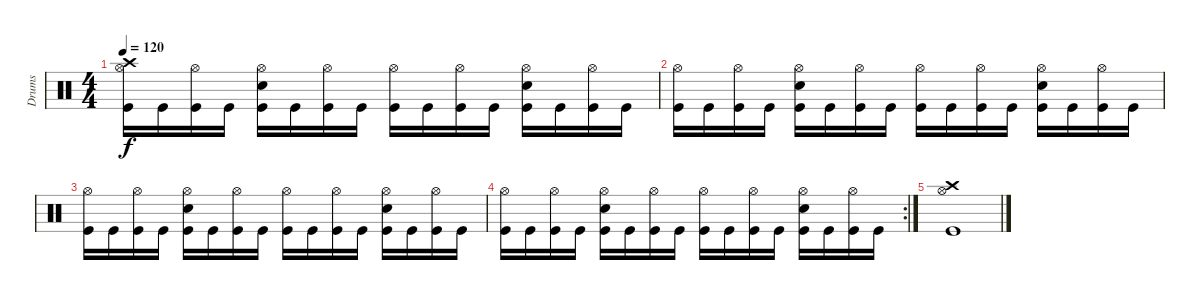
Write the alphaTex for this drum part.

\track ("Drums" "Drums") {instrument percussion}
\staff {score}
\articulation defaults
\ts (4 4)
\tempo 120
\clef neutral
\ks c
("Hi-Hat (open)" "Crash high (hit)" "Kick (hit)").16{dy f} "Kick (hit)".16 ("Hi-Hat (open)" "Kick (hit)").16 "Kick (hit)".16 ("Hi-Hat (open)" "Electric Snare (hit)" "Kick (hit)").16 "Kick (hit)".16 ("Hi-Hat (open)" "Kick (hit)").16 "Kick (hit)".16 ("Hi-Hat (open)" "Kick (hit)").16 "Kick (hit)".16 ("Hi-Hat (open)" "Kick (hit)").16 "Kick (hit)".16 ("Hi-Hat (open)" "Electric Snare (hit)" "Kick (hit)").16 "Kick (hit)".16 ("Hi-Hat (open)" "Kick (hit)").16 "Kick (hit)".16 |
("Hi-Hat (open)" "Kick (hit)").16 "Kick (hit)".16 ("Hi-Hat (open)" "Kick (hit)").16 "Kick (hit)".16 ("Hi-Hat (open)" "Electric Snare (hit)" "Kick (hit)").16 "Kick (hit)".16 ("Hi-Hat (open)" "Kick (hit)").16 "Kick (hit)".16 ("Hi-Hat (open)" "Kick (hit)").16 "Kick (hit)".16 ("Hi-Hat (open)" "Kick (hit)").16 "Kick (hit)".16 ("Hi-Hat (open)" "Electric Snare (hit)" "Kick (hit)").16 "Kick (hit)".16 ("Hi-Hat (open)" "Kick (hit)").16 "Kick (hit)".16 |
("Hi-Hat (open)" "Kick (hit)").16 "Kick (hit)".16 ("Hi-Hat (open)" "Kick (hit)").16 "Kick (hit)".16 ("Hi-Hat (open)" "Electric Snare (hit)" "Kick (hit)").16 "Kick (hit)".16 ("Hi-Hat (open)" "Kick (hit)").16 "Kick (hit)".16 ("Hi-Hat (open)" "Kick (hit)").16 "Kick (hit)".16 ("Hi-Hat (open)" "Kick (hit)").16 "Kick (hit)".16 ("Hi-Hat (open)" "Electric Snare (hit)" "Kick (hit)").16 "Kick (hit)".16 ("Hi-Hat (open)" "Kick (hit)").16 "Kick (hit)".16 |
\rc 2
("Hi-Hat (open)" "Kick (hit)").16 "Kick (hit)".16 ("Hi-Hat (open)" "Kick (hit)").16 "Kick (hit)".16 ("Hi-Hat (open)" "Electric Snare (hit)" "Kick (hit)").16 "Kick (hit)".16 ("Hi-Hat (open)" "Kick (hit)").16 "Kick (hit)".16 ("Hi-Hat (open)" "Kick (hit)").16 "Kick (hit)".16 ("Hi-Hat (open)" "Kick (hit)").16 "Kick (hit)".16 ("Hi-Hat (open)" "Electric Snare (hit)" "Kick (hit)").16 "Kick (hit)".16 ("Hi-Hat (open)" "Kick (hit)").16 "Kick (hit)".16 |
("Hi-Hat (open)" "Crash high (hit)" "Kick (hit)").1
